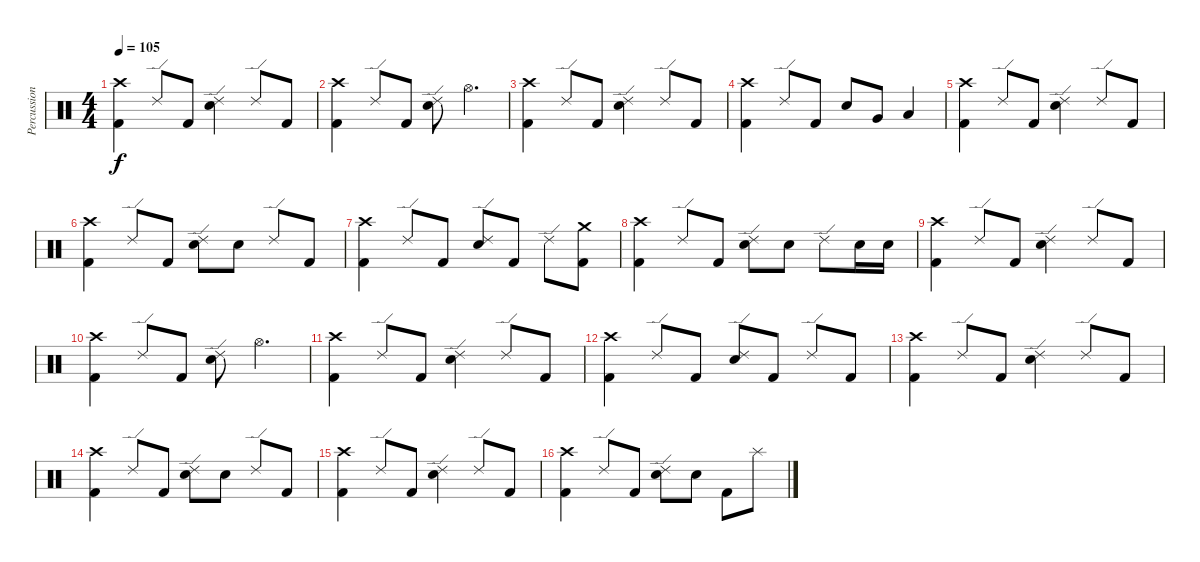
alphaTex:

\track ("Percussion" "Percussion") {instrument percussion}
\staff {score}
\articulation defaults
\ts (4 4)
\tempo 105
\clef neutral
\ks c
("Crash high (hit)" "Kick (hit) 2").4{dy f} "Ride (edge) 2".8 "Kick (hit) 2".8 ("Ride (edge) 2" "Electric Snare (hit)").4 "Ride (edge) 2".8 "Kick (hit) 2".8 |
("Crash high (hit)" "Kick (hit) 2").4 "Ride (edge) 2".8 "Kick (hit) 2".8 ("Ride (edge) 2" "Electric Snare (hit)").8 "Hi-Hat (open)".4{d} |
("Crash high (hit)" "Kick (hit) 2").4 "Ride (edge) 2".8 "Kick (hit) 2".8 ("Ride (edge) 2" "Electric Snare (hit)").4 "Ride (edge) 2".8 "Kick (hit) 2".8 |
("Crash high (hit)" "Kick (hit) 2").4 "Ride (edge) 2".8 "Kick (hit) 2".8 "Electric Snare (hit)".8 "Very Low Tom (hit)".8 "Low Floor Tom (hit)".4 |
("Crash high (hit)" "Kick (hit) 2").4 "Ride (edge) 2".8 "Kick (hit) 2".8 ("Ride (edge) 2" "Electric Snare (hit)").4 "Ride (edge) 2".8 "Kick (hit) 2".8 |
("Crash high (hit)" "Kick (hit) 2").4 "Ride (edge) 2".8 "Kick (hit) 2".8 ("Ride (edge) 2" "Electric Snare (hit)").8 "Electric Snare (hit)".8 "Ride (edge) 2".8 "Kick (hit) 2".8 |
("Crash high (hit)" "Kick (hit) 2").4 "Ride (edge) 2".8 "Kick (hit) 2".8 ("Ride (edge) 2" "Electric Snare (hit)").8 "Kick (hit) 2".8 "Ride (edge) 2".8 ("Crash medium (hit)" "Kick (hit) 2").8 |
("Crash high (hit)" "Kick (hit) 2").4 "Ride (edge) 2".8 "Kick (hit) 2".8 ("Ride (edge) 2" "Electric Snare (hit)").8 "Electric Snare (hit)".8 "Ride (edge) 2".8 "Electric Snare (hit)".16 "Electric Snare (hit)".16 |
("Crash high (hit)" "Kick (hit) 2").4 "Ride (edge) 2".8 "Kick (hit) 2".8 ("Ride (edge) 2" "Electric Snare (hit)").4 "Ride (edge) 2".8 "Kick (hit) 2".8 |
("Crash high (hit)" "Kick (hit) 2").4 "Ride (edge) 2".8 "Kick (hit) 2".8 ("Ride (edge) 2" "Electric Snare (hit)").8 "Hi-Hat (open)".4{d} |
("Crash high (hit)" "Kick (hit) 2").4 "Ride (edge) 2".8 "Kick (hit) 2".8 ("Ride (edge) 2" "Electric Snare (hit)").4 "Ride (edge) 2".8 "Kick (hit) 2".8 |
("Crash high (hit)" "Kick (hit) 2").4 "Ride (edge) 2".8 "Kick (hit) 2".8 ("Ride (edge) 2" "Electric Snare (hit)").8 "Kick (hit) 2".8 "Ride (edge) 2".8 "Kick (hit) 2".8 |
("Crash high (hit)" "Kick (hit) 2").4 "Ride (edge) 2".8 "Kick (hit) 2".8 ("Ride (edge) 2" "Electric Snare (hit)").4 "Ride (edge) 2".8 "Kick (hit) 2".8 |
("Crash high (hit)" "Kick (hit) 2").4 "Ride (edge) 2".8 "Kick (hit) 2".8 ("Ride (edge) 2" "Electric Snare (hit)").8 "Electric Snare (hit)".8 "Ride (edge) 2".8 "Kick (hit) 2".8 |
("Crash high (hit)" "Kick (hit) 2").4 "Ride (edge) 2".8 "Kick (hit) 2".8 ("Ride (edge) 2" "Electric Snare (hit)").4 "Ride (edge) 2".8 "Kick (hit) 2".8 |
("Crash high (hit)" "Kick (hit) 2").4 "Ride (edge) 2".8 "Kick (hit) 2".8 ("Ride (edge) 2" "Electric Snare (hit)").8 "Electric Snare (hit)".8 "Kick (hit) 2".8 "Splash (hit)".8
